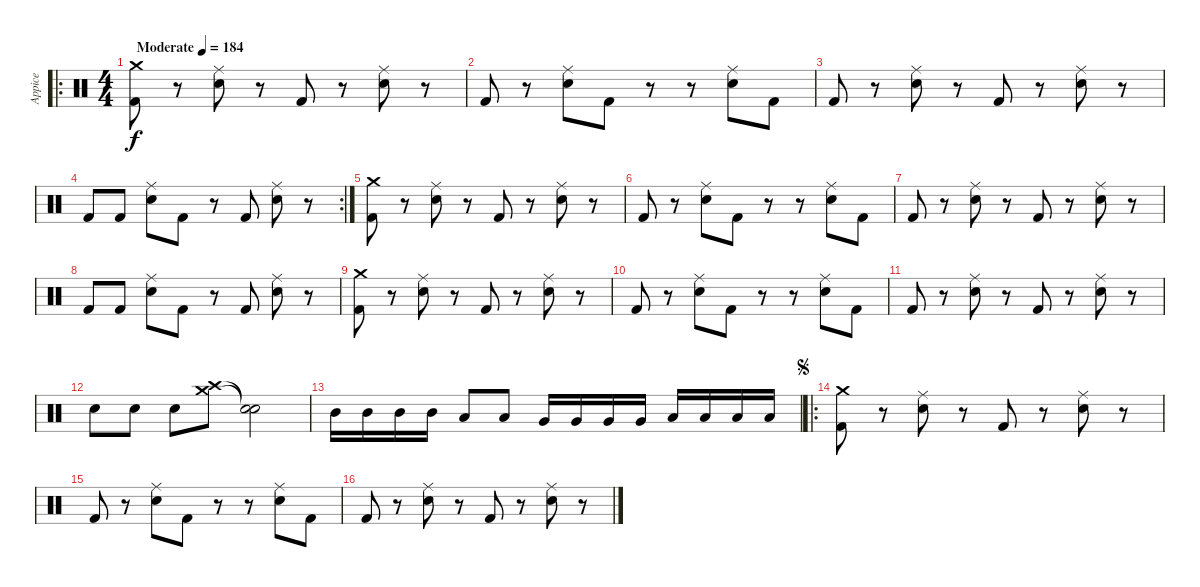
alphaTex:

\track ("Appice" "Appice") {instrument percussion}
\staff {score}
\articulation defaults
\ro
\ts (4 4)
\tempo (184 "Moderate")
\clef neutral
\ks c
("Crash medium (hit)" "Kick (hit) 2").8{dy f} r.8 ("Ride (middle)" "Snare (hit) 2").8 r.8 "Kick (hit) 2".8 r.8 ("Ride (middle)" "Snare (hit) 2").8 r.8 |
"Kick (hit) 2".8 r.8 ("Ride (middle)" "Snare (hit) 2").8 "Kick (hit) 2".8 r.8 r.8 ("Ride (middle)" "Snare (hit) 2").8 "Kick (hit) 2".8 |
"Kick (hit) 2".8 r.8 ("Ride (middle)" "Snare (hit) 2").8 r.8 "Kick (hit) 2".8 r.8 ("Ride (middle)" "Snare (hit) 2").8 r.8 |
\rc 2 "Kick (hit) 2".8 "Kick (hit) 2".8
("Ride (middle)" "Snare (hit) 2").8 "Kick (hit) 2".8 r.8 "Kick (hit) 2".8 ("Ride (middle)" "Snare (hit) 2").8 r.8 |
("Crash medium (hit)" "Kick (hit) 2").8 r.8 ("Ride (middle)" "Snare (hit) 2").8 r.8 "Kick (hit) 2".8 r.8 ("Ride (middle)" "Snare (hit) 2").8 r.8 |
"Kick (hit) 2".8 r.8 ("Ride (middle)" "Snare (hit) 2").8 "Kick (hit) 2".8 r.8 r.8 ("Ride (middle)" "Snare (hit) 2").8 "Kick (hit) 2".8 |
"Kick (hit) 2".8 r.8 ("Ride (middle)" "Snare (hit) 2").8 r.8 "Kick (hit) 2".8 r.8 ("Ride (middle)" "Snare (hit) 2").8 r.8 |
"Kick (hit) 2".8 "Kick (hit) 2".8 ("Ride (middle)" "Snare (hit) 2").8 "Kick (hit) 2".8 r.8 "Kick (hit) 2".8 ("Ride (middle)" "Snare (hit) 2").8 r.8 |
("Crash medium (hit)" "Kick (hit) 2").8 r.8 ("Ride (middle)" "Snare (hit) 2").8 r.8 "Kick (hit) 2".8 r.8 ("Ride (middle)" "Snare (hit) 2").8 r.8 |
"Kick (hit) 2".8 r.8 ("Ride (middle)" "Snare (hit) 2").8 "Kick (hit) 2".8 r.8 r.8 ("Ride (middle)" "Snare (hit) 2").8 "Kick (hit) 2".8 |
"Kick (hit) 2".8 r.8 ("Ride (middle)" "Snare (hit) 2").8 r.8 "Kick (hit) 2".8 r.8 ("Ride (middle)" "Snare (hit) 2").8 r.8 |
"Snare (hit) 2".8 "Snare (hit) 2".8 "Snare (hit) 2".8 ("Crash high (hit)" "Crash medium (hit)").8 ("Snare (hit)"{t} "Snare (hit)"{t}).2 |
"Mid Tom (hit)".16 "Mid Tom (hit)".16 "Mid Tom (hit)".16 "Mid Tom (hit)".16 "Low Tom (hit)".8 "Low Tom (hit)".8 "Very Low Tom (hit)".16 "Very Low Tom (hit)".16 "Very Low Tom (hit)".16 "Very Low Tom (hit)".16 "Low Floor Tom (hit)".16 "Low Floor Tom (hit)".16 "Low Floor Tom (hit)".16 "Low Floor Tom (hit)".16 |
\ro
\jump segno
("Crash medium (hit)" "Kick (hit) 2").8 r.8 ("Ride (middle)" "Snare (hit) 2").8 r.8 "Kick (hit) 2".8 r.8 ("Ride (middle)" "Snare (hit) 2").8 r.8 |
"Kick (hit) 2".8 r.8 ("Ride (middle)" "Snare (hit) 2").8 "Kick (hit) 2".8 r.8 r.8 ("Ride (middle)" "Snare (hit) 2").8 "Kick (hit) 2".8 |
"Kick (hit) 2".8 r.8 ("Ride (middle)" "Snare (hit) 2").8 r.8 "Kick (hit) 2".8 r.8 ("Ride (middle)" "Snare (hit) 2").8 r.8
